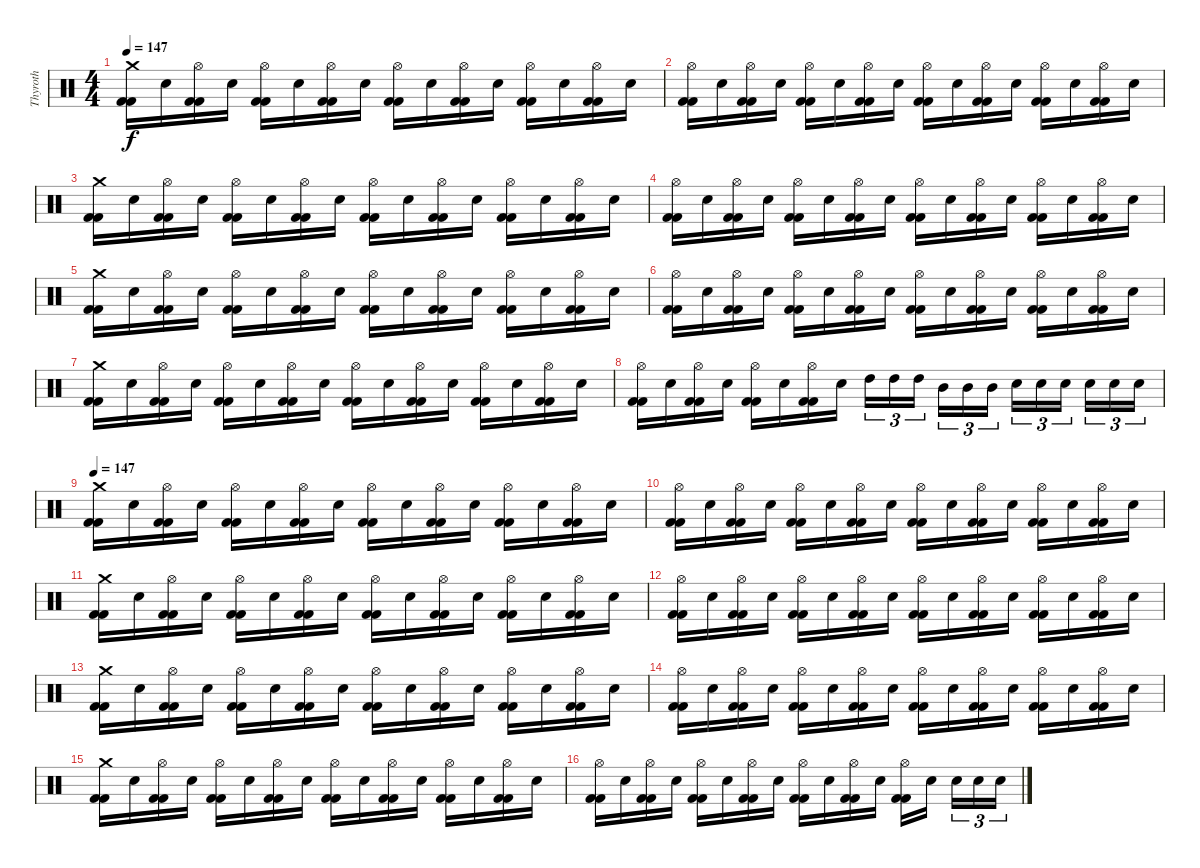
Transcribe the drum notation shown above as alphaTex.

\track ("Thyroth" "Thyroth") {instrument percussion}
\staff {score}
\articulation defaults
\ts (4 4)
\tempo 147
\clef neutral
\ks c
("Kick (hit) 2" "Kick (hit) 2" "Crash medium (hit)").16{dy f} "Snare (hit) 2".16 ("Kick (hit) 2" "Kick (hit) 2" "Hi-Hat (open)").16 "Snare (hit) 2".16 ("Kick (hit) 2" "Kick (hit) 2" "Hi-Hat (open)").16 "Snare (hit) 2".16 ("Kick (hit) 2" "Kick (hit) 2" "Hi-Hat (open)").16 "Snare (hit) 2".16 ("Kick (hit) 2" "Kick (hit) 2" "Hi-Hat (open)").16 "Snare (hit) 2".16 ("Kick (hit) 2" "Kick (hit) 2" "Hi-Hat (open)").16 "Snare (hit) 2".16 ("Kick (hit) 2" "Kick (hit) 2" "Hi-Hat (open)").16 "Snare (hit) 2".16 ("Kick (hit) 2" "Kick (hit) 2" "Hi-Hat (open)").16 "Snare (hit) 2".16 |
("Kick (hit) 2" "Kick (hit) 2" "Hi-Hat (open)").16 "Snare (hit) 2".16 ("Kick (hit) 2" "Kick (hit) 2" "Hi-Hat (open)").16 "Snare (hit) 2".16 ("Kick (hit) 2" "Kick (hit) 2" "Hi-Hat (open)").16 "Snare (hit) 2".16 ("Kick (hit) 2" "Kick (hit) 2" "Hi-Hat (open)").16 "Snare (hit) 2".16 ("Kick (hit) 2" "Kick (hit) 2" "Hi-Hat (open)").16 "Snare (hit) 2".16 ("Kick (hit) 2" "Kick (hit) 2" "Hi-Hat (open)").16 "Snare (hit) 2".16 ("Kick (hit) 2" "Kick (hit) 2" "Hi-Hat (open)").16 "Snare (hit) 2".16 ("Kick (hit) 2" "Kick (hit) 2" "Hi-Hat (open)").16 "Snare (hit) 2".16 |
("Kick (hit) 2" "Kick (hit) 2" "Crash medium (hit)").16 "Snare (hit) 2".16 ("Kick (hit) 2" "Kick (hit) 2" "Hi-Hat (open)").16 "Snare (hit) 2".16 ("Kick (hit) 2" "Kick (hit) 2" "Hi-Hat (open)").16 "Snare (hit) 2".16 ("Kick (hit) 2" "Kick (hit) 2" "Hi-Hat (open)").16 "Snare (hit) 2".16 ("Kick (hit) 2" "Kick (hit) 2" "Hi-Hat (open)").16 "Snare (hit) 2".16 ("Kick (hit) 2" "Kick (hit) 2" "Hi-Hat (open)").16 "Snare (hit) 2".16 ("Kick (hit) 2" "Kick (hit) 2" "Hi-Hat (open)").16 "Snare (hit) 2".16 ("Kick (hit) 2" "Kick (hit) 2" "Hi-Hat (open)").16 "Snare (hit) 2".16 |
("Kick (hit) 2" "Kick (hit) 2" "Hi-Hat (open)").16 "Snare (hit) 2".16 ("Kick (hit) 2" "Kick (hit) 2" "Hi-Hat (open)").16 "Snare (hit) 2".16 ("Kick (hit) 2" "Kick (hit) 2" "Hi-Hat (open)").16 "Snare (hit) 2".16 ("Kick (hit) 2" "Kick (hit) 2" "Hi-Hat (open)").16 "Snare (hit) 2".16 ("Kick (hit) 2" "Kick (hit) 2" "Hi-Hat (open)").16 "Snare (hit) 2".16 ("Kick (hit) 2" "Kick (hit) 2" "Hi-Hat (open)").16 "Snare (hit) 2".16 ("Kick (hit) 2" "Kick (hit) 2" "Hi-Hat (open)").16 "Snare (hit) 2".16 ("Kick (hit) 2" "Kick (hit) 2" "Hi-Hat (open)").16 "Snare (hit) 2".16 |
("Kick (hit) 2" "Kick (hit) 2" "Crash medium (hit)").16 "Snare (hit) 2".16 ("Kick (hit) 2" "Kick (hit) 2" "Hi-Hat (open)").16 "Snare (hit) 2".16 ("Kick (hit) 2" "Kick (hit) 2" "Hi-Hat (open)").16 "Snare (hit) 2".16 ("Kick (hit) 2" "Kick (hit) 2" "Hi-Hat (open)").16 "Snare (hit) 2".16 ("Kick (hit) 2" "Kick (hit) 2" "Hi-Hat (open)").16 "Snare (hit) 2".16 ("Kick (hit) 2" "Kick (hit) 2" "Hi-Hat (open)").16 "Snare (hit) 2".16 ("Kick (hit) 2" "Kick (hit) 2" "Hi-Hat (open)").16 "Snare (hit) 2".16 ("Kick (hit) 2" "Kick (hit) 2" "Hi-Hat (open)").16 "Snare (hit) 2".16 |
("Kick (hit) 2" "Kick (hit) 2" "Hi-Hat (open)").16 "Snare (hit) 2".16 ("Kick (hit) 2" "Kick (hit) 2" "Hi-Hat (open)").16 "Snare (hit) 2".16 ("Kick (hit) 2" "Kick (hit) 2" "Hi-Hat (open)").16 "Snare (hit) 2".16 ("Kick (hit) 2" "Kick (hit) 2" "Hi-Hat (open)").16 "Snare (hit) 2".16 ("Kick (hit) 2" "Kick (hit) 2" "Hi-Hat (open)").16 "Snare (hit) 2".16 ("Kick (hit) 2" "Kick (hit) 2" "Hi-Hat (open)").16 "Snare (hit) 2".16 ("Kick (hit) 2" "Kick (hit) 2" "Hi-Hat (open)").16 "Snare (hit) 2".16 ("Kick (hit) 2" "Kick (hit) 2" "Hi-Hat (open)").16 "Snare (hit) 2".16 |
("Kick (hit) 2" "Kick (hit) 2" "Crash medium (hit)").16 "Snare (hit) 2".16 ("Kick (hit) 2" "Kick (hit) 2" "Hi-Hat (open)").16 "Snare (hit) 2".16 ("Kick (hit) 2" "Kick (hit) 2" "Hi-Hat (open)").16 "Snare (hit) 2".16 ("Kick (hit) 2" "Kick (hit) 2" "Hi-Hat (open)").16 "Snare (hit) 2".16 ("Kick (hit) 2" "Kick (hit) 2" "Hi-Hat (open)").16 "Snare (hit) 2".16 ("Kick (hit) 2" "Kick (hit) 2" "Hi-Hat (open)").16 "Snare (hit) 2".16 ("Kick (hit) 2" "Kick (hit) 2" "Hi-Hat (open)").16 "Snare (hit) 2".16 ("Kick (hit) 2" "Kick (hit) 2" "Hi-Hat (open)").16 "Snare (hit) 2".16 |
("Kick (hit) 2" "Kick (hit) 2" "Hi-Hat (open)").16 "Snare (hit) 2".16 ("Kick (hit) 2" "Kick (hit) 2" "Hi-Hat (open)").16 "Snare (hit) 2".16 ("Kick (hit) 2" "Kick (hit) 2" "Hi-Hat (open)").16 "Snare (hit) 2".16 ("Kick (hit) 2" "Kick (hit) 2" "Hi-Hat (open)").16 "Snare (hit) 2".16 "High Tom (hit)".16{tu (3 2)} "High Tom (hit)".16{tu (3 2)} "High Tom (hit)".16{tu (3 2)} "Mid Tom (hit)".16{tu (3 2)} "Mid Tom (hit)".16{tu (3 2)} "Mid Tom (hit)".16{tu (3 2)} "Snare (hit) 2".16{tu (3 2)} "Snare (hit) 2".16{tu (3 2)} "Snare (hit) 2".16{tu (3 2)} "Snare (hit) 2".16{tu (3 2)} "Snare (hit) 2".16{tu (3 2)} "Snare (hit) 2".16{tu (3 2)} |
\tempo 147
("Kick (hit) 2" "Kick (hit) 2" "Crash medium (hit)").16 "Snare (hit) 2".16 ("Kick (hit) 2" "Kick (hit) 2" "Hi-Hat (open)").16 "Snare (hit) 2".16 ("Kick (hit) 2" "Kick (hit) 2" "Hi-Hat (open)").16 "Snare (hit) 2".16 ("Kick (hit) 2" "Kick (hit) 2" "Hi-Hat (open)").16 "Snare (hit) 2".16 ("Kick (hit) 2" "Kick (hit) 2" "Hi-Hat (open)").16 "Snare (hit) 2".16 ("Kick (hit) 2" "Kick (hit) 2" "Hi-Hat (open)").16 "Snare (hit) 2".16 ("Kick (hit) 2" "Kick (hit) 2" "Hi-Hat (open)").16 "Snare (hit) 2".16 ("Kick (hit) 2" "Kick (hit) 2" "Hi-Hat (open)").16 "Snare (hit) 2".16 |
("Kick (hit) 2" "Kick (hit) 2" "Hi-Hat (open)").16 "Snare (hit) 2".16 ("Kick (hit) 2" "Kick (hit) 2" "Hi-Hat (open)").16 "Snare (hit) 2".16 ("Kick (hit) 2" "Kick (hit) 2" "Hi-Hat (open)").16 "Snare (hit) 2".16 ("Kick (hit) 2" "Kick (hit) 2" "Hi-Hat (open)").16 "Snare (hit) 2".16 ("Kick (hit) 2" "Kick (hit) 2" "Hi-Hat (open)").16 "Snare (hit) 2".16 ("Kick (hit) 2" "Kick (hit) 2" "Hi-Hat (open)").16 "Snare (hit) 2".16 ("Kick (hit) 2" "Kick (hit) 2" "Hi-Hat (open)").16 "Snare (hit) 2".16 ("Kick (hit) 2" "Kick (hit) 2" "Hi-Hat (open)").16 "Snare (hit) 2".16 |
("Kick (hit) 2" "Kick (hit) 2" "Crash medium (hit)").16 "Snare (hit) 2".16 ("Kick (hit) 2" "Kick (hit) 2" "Hi-Hat (open)").16 "Snare (hit) 2".16 ("Kick (hit) 2" "Kick (hit) 2" "Hi-Hat (open)").16 "Snare (hit) 2".16 ("Kick (hit) 2" "Kick (hit) 2" "Hi-Hat (open)").16 "Snare (hit) 2".16 ("Kick (hit) 2" "Kick (hit) 2" "Hi-Hat (open)").16 "Snare (hit) 2".16 ("Kick (hit) 2" "Kick (hit) 2" "Hi-Hat (open)").16 "Snare (hit) 2".16 ("Kick (hit) 2" "Kick (hit) 2" "Hi-Hat (open)").16 "Snare (hit) 2".16 ("Kick (hit) 2" "Kick (hit) 2" "Hi-Hat (open)").16 "Snare (hit) 2".16 |
("Kick (hit) 2" "Kick (hit) 2" "Hi-Hat (open)").16 "Snare (hit) 2".16 ("Kick (hit) 2" "Kick (hit) 2" "Hi-Hat (open)").16 "Snare (hit) 2".16 ("Kick (hit) 2" "Kick (hit) 2" "Hi-Hat (open)").16 "Snare (hit) 2".16 ("Kick (hit) 2" "Kick (hit) 2" "Hi-Hat (open)").16 "Snare (hit) 2".16 ("Kick (hit) 2" "Kick (hit) 2" "Hi-Hat (open)").16 "Snare (hit) 2".16 ("Kick (hit) 2" "Kick (hit) 2" "Hi-Hat (open)").16 "Snare (hit) 2".16 ("Kick (hit) 2" "Kick (hit) 2" "Hi-Hat (open)").16 "Snare (hit) 2".16 ("Kick (hit) 2" "Kick (hit) 2" "Hi-Hat (open)").16 "Snare (hit) 2".16 |
("Kick (hit) 2" "Kick (hit) 2" "Crash medium (hit)").16 "Snare (hit) 2".16 ("Kick (hit) 2" "Kick (hit) 2" "Hi-Hat (open)").16 "Snare (hit) 2".16 ("Kick (hit) 2" "Kick (hit) 2" "Hi-Hat (open)").16 "Snare (hit) 2".16 ("Kick (hit) 2" "Kick (hit) 2" "Hi-Hat (open)").16 "Snare (hit) 2".16 ("Kick (hit) 2" "Kick (hit) 2" "Hi-Hat (open)").16 "Snare (hit) 2".16 ("Kick (hit) 2" "Kick (hit) 2" "Hi-Hat (open)").16 "Snare (hit) 2".16 ("Kick (hit) 2" "Kick (hit) 2" "Hi-Hat (open)").16 "Snare (hit) 2".16 ("Kick (hit) 2" "Kick (hit) 2" "Hi-Hat (open)").16 "Snare (hit) 2".16 |
("Kick (hit) 2" "Kick (hit) 2" "Hi-Hat (open)").16 "Snare (hit) 2".16 ("Kick (hit) 2" "Kick (hit) 2" "Hi-Hat (open)").16 "Snare (hit) 2".16 ("Kick (hit) 2" "Kick (hit) 2" "Hi-Hat (open)").16 "Snare (hit) 2".16 ("Kick (hit) 2" "Kick (hit) 2" "Hi-Hat (open)").16 "Snare (hit) 2".16 ("Kick (hit) 2" "Kick (hit) 2" "Hi-Hat (open)").16 "Snare (hit) 2".16 ("Kick (hit) 2" "Kick (hit) 2" "Hi-Hat (open)").16 "Snare (hit) 2".16 ("Kick (hit) 2" "Kick (hit) 2" "Hi-Hat (open)").16 "Snare (hit) 2".16 ("Kick (hit) 2" "Kick (hit) 2" "Hi-Hat (open)").16 "Snare (hit) 2".16 |
("Kick (hit) 2" "Kick (hit) 2" "Crash medium (hit)").16 "Snare (hit) 2".16 ("Kick (hit) 2" "Kick (hit) 2" "Hi-Hat (open)").16 "Snare (hit) 2".16 ("Kick (hit) 2" "Kick (hit) 2" "Hi-Hat (open)").16 "Snare (hit) 2".16 ("Kick (hit) 2" "Kick (hit) 2" "Hi-Hat (open)").16 "Snare (hit) 2".16 ("Kick (hit) 2" "Kick (hit) 2" "Hi-Hat (open)").16 "Snare (hit) 2".16 ("Kick (hit) 2" "Kick (hit) 2" "Hi-Hat (open)").16 "Snare (hit) 2".16 ("Kick (hit) 2" "Kick (hit) 2" "Hi-Hat (open)").16 "Snare (hit) 2".16 ("Kick (hit) 2" "Kick (hit) 2" "Hi-Hat (open)").16 "Snare (hit) 2".16 |
("Kick (hit) 2" "Kick (hit) 2" "Hi-Hat (open)").16 "Snare (hit) 2".16 ("Kick (hit) 2" "Kick (hit) 2" "Hi-Hat (open)").16 "Snare (hit) 2".16 ("Kick (hit) 2" "Kick (hit) 2" "Hi-Hat (open)").16 "Snare (hit) 2".16 ("Kick (hit) 2" "Kick (hit) 2" "Hi-Hat (open)").16 "Snare (hit) 2".16 ("Kick (hit) 2" "Kick (hit) 2" "Hi-Hat (open)").16 "Snare (hit) 2".16 ("Kick (hit) 2" "Kick (hit) 2" "Hi-Hat (open)").16 "Snare (hit) 2".16 ("Kick (hit) 2" "Kick (hit) 2" "Hi-Hat (open)").16 "Snare (hit) 2".16 "Snare (hit) 2".16{tu (3 2)} "Snare (hit) 2".16{tu (3 2)} "Snare (hit) 2".16{tu (3 2)}
